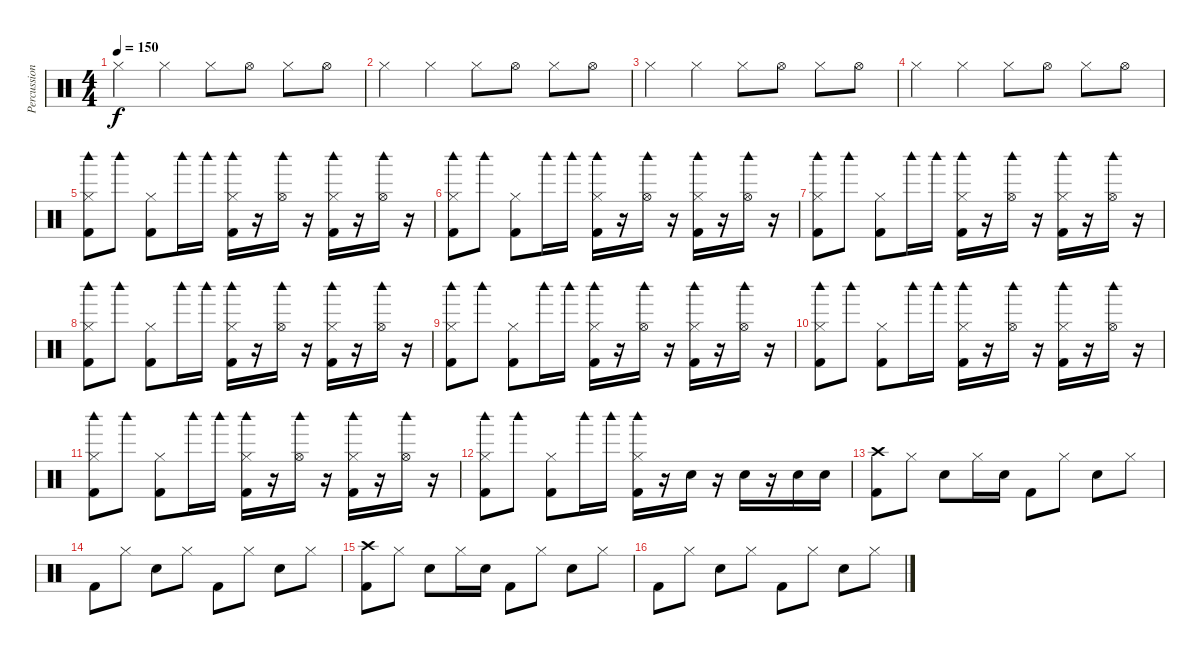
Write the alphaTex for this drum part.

\track ("Percussion" "Percussion") {instrument percussion}
\staff {score}
\articulation defaults
\ts (4 4)
\tempo 150
\clef neutral
\ks c "Hi-Hat (closed)".4{dy f} "Hi-Hat (closed)".4 "Hi-Hat (closed)".8 "Hi-Hat (open)".8 "Hi-Hat (closed)".8 "Hi-Hat (open)".8
|
"Hi-Hat (closed)".4 "Hi-Hat (closed)".4 "Hi-Hat (closed)".8 "Hi-Hat (open)".8 "Hi-Hat (closed)".8 "Hi-Hat (open)".8 |
"Hi-Hat (closed)".4 "Hi-Hat (closed)".4 "Hi-Hat (closed)".8 "Hi-Hat (open)".8 "Hi-Hat (closed)".8 "Hi-Hat (open)".8 |
"Hi-Hat (closed)".4 "Hi-Hat (closed)".4 "Hi-Hat (closed)".8 "Hi-Hat (open)".8 "Hi-Hat (closed)".8 "Hi-Hat (open)".8 |
("Woodblock high (hit)" "Hi-Hat (closed)" "Kick (hit) 2").8 "Woodblock high (hit)".8 ("Hi-Hat (closed)" "Kick (hit) 2").8 "Woodblock high (hit)".16 "Woodblock high (hit)".16 ("Woodblock high (hit)" "Hi-Hat (closed)" "Kick (hit) 2").16 r.16 ("Woodblock high (hit)" "Hi-Hat (open)").16 r.16 ("Woodblock high (hit)" "Hi-Hat (closed)" "Kick (hit) 2").16 r.16 ("Woodblock high (hit)" "Hi-Hat (open)").16 r.16 |
("Woodblock high (hit)" "Hi-Hat (closed)" "Kick (hit) 2").8 "Woodblock high (hit)".8 ("Hi-Hat (closed)" "Kick (hit) 2").8 "Woodblock high (hit)".16 "Woodblock high (hit)".16 ("Woodblock high (hit)" "Hi-Hat (closed)" "Kick (hit) 2").16 r.16 ("Woodblock high (hit)" "Hi-Hat (open)").16 r.16 ("Woodblock high (hit)" "Hi-Hat (closed)" "Kick (hit) 2").16 r.16 ("Woodblock high (hit)" "Hi-Hat (open)").16 r.16 |
("Woodblock high (hit)" "Hi-Hat (closed)" "Kick (hit) 2").8 "Woodblock high (hit)".8 ("Hi-Hat (closed)" "Kick (hit) 2").8 "Woodblock high (hit)".16 "Woodblock high (hit)".16 ("Woodblock high (hit)" "Hi-Hat (closed)" "Kick (hit) 2").16 r.16 ("Woodblock high (hit)" "Hi-Hat (open)").16 r.16 ("Woodblock high (hit)" "Hi-Hat (closed)" "Kick (hit) 2").16 r.16 ("Woodblock high (hit)" "Hi-Hat (open)").16 r.16 |
("Woodblock high (hit)" "Hi-Hat (closed)" "Kick (hit) 2").8 "Woodblock high (hit)".8 ("Hi-Hat (closed)" "Kick (hit) 2").8 "Woodblock high (hit)".16 "Woodblock high (hit)".16 ("Woodblock high (hit)" "Hi-Hat (closed)" "Kick (hit) 2").16 r.16 ("Woodblock high (hit)" "Hi-Hat (open)").16 r.16 ("Woodblock high (hit)" "Hi-Hat (closed)" "Kick (hit) 2").16 r.16 ("Woodblock high (hit)" "Hi-Hat (open)").16 r.16 |
("Woodblock high (hit)" "Hi-Hat (closed)" "Kick (hit) 2").8 "Woodblock high (hit)".8 ("Hi-Hat (closed)" "Kick (hit) 2").8 "Woodblock high (hit)".16 "Woodblock high (hit)".16 ("Woodblock high (hit)" "Hi-Hat (closed)" "Kick (hit) 2").16 r.16 ("Woodblock high (hit)" "Hi-Hat (open)").16 r.16 ("Woodblock high (hit)" "Hi-Hat (closed)" "Kick (hit) 2").16 r.16 ("Woodblock high (hit)" "Hi-Hat (open)").16 r.16 |
("Woodblock high (hit)" "Hi-Hat (closed)" "Kick (hit) 2").8 "Woodblock high (hit)".8 ("Hi-Hat (closed)" "Kick (hit) 2").8 "Woodblock high (hit)".16 "Woodblock high (hit)".16 ("Woodblock high (hit)" "Hi-Hat (closed)" "Kick (hit) 2").16 r.16 ("Woodblock high (hit)" "Hi-Hat (open)").16 r.16 ("Woodblock high (hit)" "Hi-Hat (closed)" "Kick (hit) 2").16 r.16 ("Woodblock high (hit)" "Hi-Hat (open)").16 r.16 |
("Woodblock high (hit)" "Hi-Hat (closed)" "Kick (hit) 2").8 "Woodblock high (hit)".8 ("Hi-Hat (closed)" "Kick (hit) 2").8 "Woodblock high (hit)".16 "Woodblock high (hit)".16 ("Woodblock high (hit)" "Hi-Hat (closed)" "Kick (hit) 2").16 r.16 ("Woodblock high (hit)" "Hi-Hat (open)").16 r.16 ("Woodblock high (hit)" "Hi-Hat (closed)" "Kick (hit) 2").16 r.16 ("Woodblock high (hit)" "Hi-Hat (open)").16 r.16 |
("Woodblock high (hit)" "Hi-Hat (closed)" "Kick (hit) 2").8 "Woodblock high (hit)".8 ("Hi-Hat (closed)" "Kick (hit) 2").8 "Woodblock high (hit)".16 "Woodblock high (hit)".16 ("Woodblock high (hit)" "Hi-Hat (closed)" "Kick (hit) 2").16 r.16 "Electric Snare (hit)".16 r.16 "Electric Snare (hit)".16 r.16 "Electric Snare (hit)".16 "Electric Snare (hit)".16 |
("Crash high (hit)" "Kick (hit) 2").8 "Hi-Hat (closed)".8 "Electric Snare (hit)".8 "Hi-Hat (closed)".16 "Electric Snare (hit)".16 "Kick (hit) 2".8 "Hi-Hat (closed)".8 "Electric Snare (hit)".8 "Hi-Hat (closed)".8 |
"Kick (hit) 2".8 "Hi-Hat (closed)".8 "Electric Snare (hit)".8 "Hi-Hat (closed)".8 "Kick (hit) 2".8 "Hi-Hat (closed)".8 "Electric Snare (hit)".8 "Hi-Hat (closed)".8 |
("Crash high (hit)" "Kick (hit) 2").8 "Hi-Hat (closed)".8 "Electric Snare (hit)".8 "Hi-Hat (closed)".16 "Electric Snare (hit)".16 "Kick (hit) 2".8 "Hi-Hat (closed)".8 "Electric Snare (hit)".8 "Hi-Hat (closed)".8 |
"Kick (hit) 2".8 "Hi-Hat (closed)".8 "Electric Snare (hit)".8 "Hi-Hat (closed)".8 "Kick (hit) 2".8 "Hi-Hat (closed)".8 "Electric Snare (hit)".8 "Hi-Hat (closed)".8
